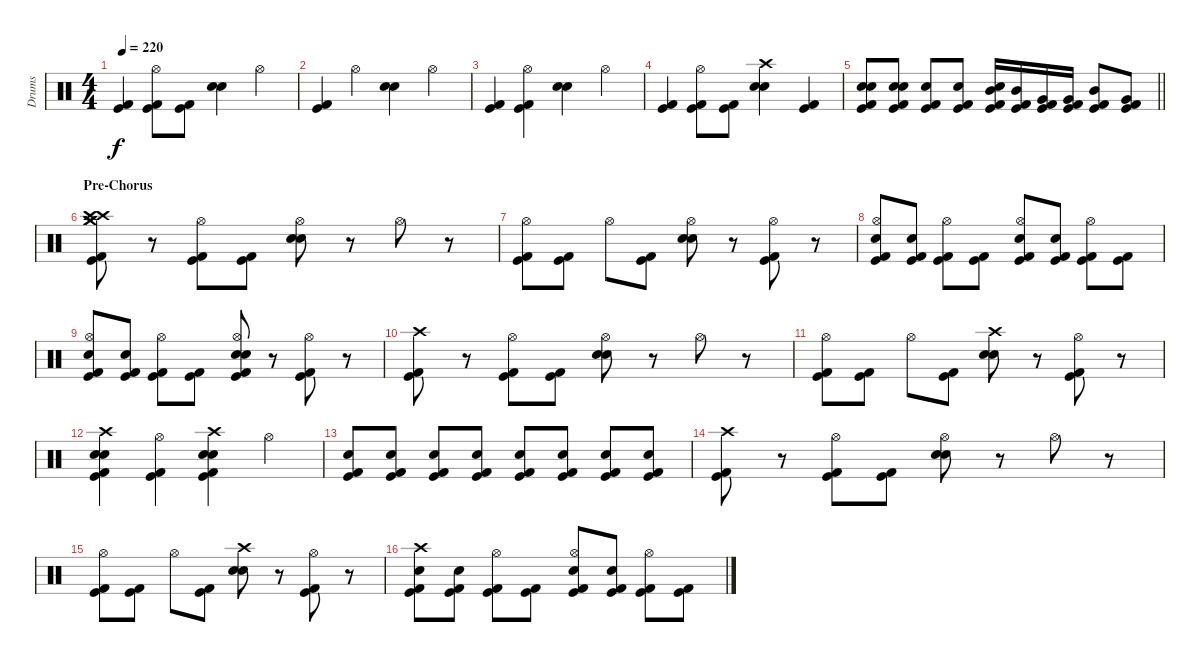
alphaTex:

\track ("Drums" "Drums") {instrument percussion}
\staff {score}
\articulation defaults
\ts (4 4)
\tempo 220
\clef neutral
\ks c
("Kick (hit) 2" "Kick (hit)").4{dy f} ("Hi-Hat (open)" "Kick (hit) 2" "Kick (hit)").8 ("Kick (hit) 2" "Kick (hit)").8 ("Electric Snare (hit)" "Snare (hit) 2").4 "Hi-Hat (open)".4 |
("Kick (hit) 2" "Kick (hit)").4 "Hi-Hat (open)".4 ("Electric Snare (hit)" "Snare (hit) 2").4 "Hi-Hat (open)".4 |
("Kick (hit) 2" "Kick (hit)").4 ("Hi-Hat (open)" "Kick (hit) 2" "Kick (hit)").4 ("Electric Snare (hit)" "Snare (hit) 2").4 "Hi-Hat (open)".4 |
("Kick (hit) 2" "Kick (hit)").4 ("Hi-Hat (open)" "Kick (hit) 2" "Kick (hit)").8 ("Kick (hit) 2" "Kick (hit)").8 ("Crash high (hit)" "Electric Snare (hit)" "Snare (hit) 2").4 ("Kick (hit) 2" "Kick (hit)").4 |
\barLineRight lightlight
("Electric Snare (hit)" "Snare (hit) 2" "Kick (hit) 2" "Kick (hit)").8 ("Electric Snare (hit)" "Snare (hit) 2" "Kick (hit) 2" "Kick (hit)").8 ("Snare (hit) 2" "Kick (hit) 2" "Kick (hit)").8 ("Snare (hit) 2" "Kick (hit) 2" "Kick (hit)").8 ("Mid Tom (hit)" "Snare (hit) 2" "Kick (hit) 2" "Kick (hit)").16 ("Mid Tom (hit)" "Kick (hit) 2" "Kick (hit)").16 ("Very Low Tom (hit)" "Kick (hit) 2" "Kick (hit)").16 ("Very Low Tom (hit)" "Kick (hit) 2" "Kick (hit)").16 ("Mid Tom (hit)" "Kick (hit) 2" "Kick (hit)").8 ("Very Low Tom (hit)" "Kick (hit) 2" "Kick (hit)").8 |
\section ("" "Pre-Chorus")
("Crash high (hit)" "Crash high (hit)" "Crash medium (hit)" "Crash medium (hit)" "Kick (hit) 2" "Kick (hit)").8 r.8 ("Hi-Hat (open)" "Kick (hit) 2" "Kick (hit)").8 ("Kick (hit) 2" "Kick (hit)").8 ("Hi-Hat (open)" "Electric Snare (hit)" "Snare (hit) 2").8 r.8 "Hi-Hat (open)".8 r.8 |
("Hi-Hat (open)" "Kick (hit) 2" "Kick (hit)").8 ("Kick (hit) 2" "Kick (hit)").8 "Hi-Hat (open)".8 ("Kick (hit) 2" "Kick (hit)").8 ("Hi-Hat (open)" "Electric Snare (hit)" "Snare (hit) 2").8 r.8 ("Hi-Hat (open)" "Kick (hit) 2" "Kick (hit)").8 r.8 |
("Hi-Hat (open)" "Snare (hit) 2" "Kick (hit) 2" "Kick (hit)").8 ("Snare (hit) 2" "Kick (hit) 2" "Kick (hit)").8 ("Hi-Hat (open)" "Kick (hit) 2" "Kick (hit)").8 ("Kick (hit) 2" "Kick (hit)").8 ("Hi-Hat (open)" "Snare (hit) 2" "Kick (hit) 2" "Kick (hit)").8 ("Snare (hit) 2" "Kick (hit) 2" "Kick (hit)").8 ("Hi-Hat (open)" "Kick (hit) 2" "Kick (hit)").8 ("Kick (hit) 2" "Kick (hit)").8 |
("Hi-Hat (open)" "Snare (hit) 2" "Kick (hit) 2" "Kick (hit)").8 ("Snare (hit) 2" "Kick (hit) 2" "Kick (hit)").8 ("Hi-Hat (open)" "Kick (hit) 2" "Kick (hit)").8 ("Kick (hit) 2" "Kick (hit)").8 ("Hi-Hat (open)" "Electric Snare (hit)" "Snare (hit) 2" "Kick (hit) 2" "Kick (hit)").8 r.8 ("Hi-Hat (open)" "Kick (hit) 2" "Kick (hit)").8 r.8 |
("Crash high (hit)" "Kick (hit) 2" "Kick (hit)").8 r.8 ("Hi-Hat (open)" "Kick (hit) 2" "Kick (hit)").8 ("Kick (hit) 2" "Kick (hit)").8 ("Hi-Hat (open)" "Electric Snare (hit)" "Snare (hit) 2").8 r.8 "Hi-Hat (open)".8 r.8 |
("Hi-Hat (open)" "Kick (hit) 2" "Kick (hit)").8 ("Kick (hit) 2" "Kick (hit)").8 "Hi-Hat (open)".8 ("Kick (hit) 2" "Kick (hit)").8 ("Crash high (hit)" "Electric Snare (hit)" "Snare (hit) 2").8 r.8 ("Hi-Hat (open)" "Kick (hit) 2" "Kick (hit)").8 r.8 |
("Crash high (hit)" "Electric Snare (hit)" "Snare (hit) 2" "Kick (hit) 2" "Kick (hit)").4 ("Hi-Hat (open)" "Kick (hit) 2" "Kick (hit)").4 ("Crash high (hit)" "Electric Snare (hit)" "Snare (hit) 2" "Kick (hit) 2" "Kick (hit)").4 "Hi-Hat (open)".4 |
("Snare (hit) 2" "Kick (hit) 2" "Kick (hit)").8 ("Snare (hit) 2" "Kick (hit) 2" "Kick (hit)").8 ("Snare (hit) 2" "Kick (hit) 2" "Kick (hit)").8 ("Snare (hit) 2" "Kick (hit) 2" "Kick (hit)").8 ("Snare (hit) 2" "Kick (hit) 2" "Kick (hit)").8 ("Snare (hit) 2" "Kick (hit) 2" "Kick (hit)").8 ("Snare (hit) 2" "Kick (hit) 2" "Kick (hit)").8 ("Snare (hit) 2" "Kick (hit) 2" "Kick (hit)").8 |
("Crash high (hit)" "Kick (hit) 2" "Kick (hit)").8 r.8 ("Hi-Hat (open)" "Kick (hit) 2" "Kick (hit)").8 ("Kick (hit) 2" "Kick (hit)").8 ("Hi-Hat (open)" "Electric Snare (hit)" "Snare (hit) 2").8 r.8 "Hi-Hat (open)".8 r.8 |
("Hi-Hat (open)" "Kick (hit) 2" "Kick (hit)").8 ("Kick (hit) 2" "Kick (hit)").8 "Hi-Hat (open)".8 ("Kick (hit) 2" "Kick (hit)").8 ("Crash high (hit)" "Electric Snare (hit)" "Snare (hit) 2").8 r.8 ("Hi-Hat (open)" "Kick (hit) 2" "Kick (hit)").8 r.8 |
("Crash high (hit)" "Snare (hit) 2" "Kick (hit) 2" "Kick (hit)").8 ("Snare (hit) 2" "Kick (hit) 2" "Kick (hit)").8 ("Hi-Hat (open)" "Kick (hit) 2" "Kick (hit)").8 ("Kick (hit) 2" "Kick (hit)").8 ("Hi-Hat (open)" "Snare (hit) 2" "Kick (hit) 2" "Kick (hit)").8 ("Snare (hit) 2" "Kick (hit) 2" "Kick (hit)").8 ("Hi-Hat (open)" "Kick (hit) 2" "Kick (hit)").8 ("Kick (hit) 2" "Kick (hit)").8
